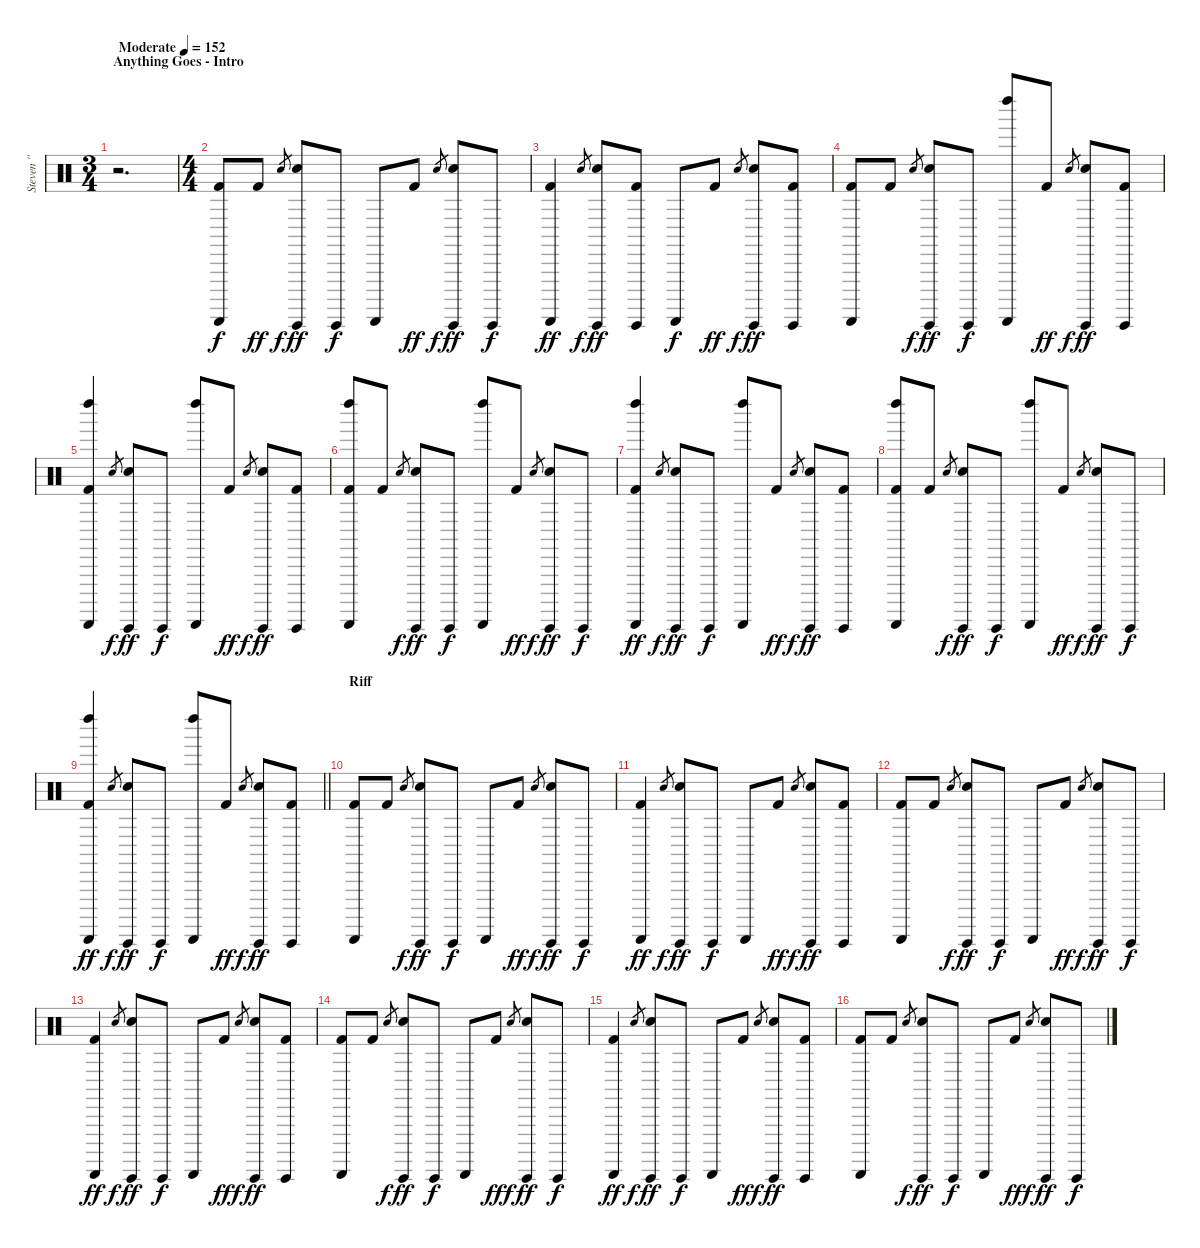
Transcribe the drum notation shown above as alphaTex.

\track ("Steven '' Popcorn '' Adler" "Steven '' ") {instrument percussion}
\staff {score}
\articulation defaults
\ts (3 4)
\section ("" "Anything Goes - Intro")
\tempo (152 "Moderate")
\clef neutral
\ks c
r.2{d dy f} |
\ts (4 4)
("Guiro (scrap-return)" "Kick (hit) 2").8 "Kick (hit) 2".8{dy ff} "Snare (hit) 2".8{gr dy f} ("Guiro (hit)" "Snare (hit) 2").8{dy ff} "Guiro (hit)".8{dy f} "Guiro (scrap-return)".8 "Kick (hit) 2".8{dy ff} "Snare (hit) 2".8{gr dy f} ("Guiro (hit)" "Snare (hit) 2").8{dy ff} "Guiro (hit)".8{dy f} |
("Guiro (scrap-return)" "Kick (hit) 2").4{dy ff} "Snare (hit) 2".8{gr dy f} ("Guiro (hit)" "Snare (hit) 2").8{dy ff} ("Guiro (hit)" "Kick (hit) 2").8 "Guiro (scrap-return)".8{dy f} "Kick (hit) 2".8{dy ff} "Snare (hit) 2".8{gr dy f} ("Guiro (hit)" "Snare (hit) 2").8{dy ff} ("Guiro (hit)" "Kick (hit) 2").8 |
("Guiro (scrap-return)" "Kick (hit) 2").8 "Kick (hit) 2".8 "Snare (hit) 2".8{gr dy f} ("Guiro (hit)" "Snare (hit) 2").8{dy ff} "Guiro (hit)".8{dy f} ("Left Maraca (hit)" "Guiro (scrap-return)").8 "Kick (hit) 2".8{dy ff} "Snare (hit) 2".8{gr dy f} ("Guiro (hit)" "Snare (hit) 2").8{dy ff} ("Guiro (hit)" "Kick (hit) 2").8 |
("Left Maraca (hit)" "Guiro (scrap-return)" "Kick (hit) 2").4 "Snare (hit) 2".8{gr dy f} ("Guiro (hit)" "Snare (hit) 2").8{dy ff} "Guiro (hit)".8{dy f} ("Left Maraca (hit)" "Guiro (scrap-return)").8 "Kick (hit) 2".8{dy ff} "Snare (hit) 2".8{gr dy f} ("Guiro (hit)" "Snare (hit) 2").8{dy ff} ("Guiro (hit)" "Kick (hit) 2").8 |
("Left Maraca (hit)" "Guiro (scrap-return)" "Kick (hit) 2").8 "Kick (hit) 2".8 "Snare (hit) 2".8{gr dy f} ("Guiro (hit)" "Snare (hit) 2").8{dy ff} "Guiro (hit)".8{dy f} ("Left Maraca (hit)" "Guiro (scrap-return)").8 "Kick (hit) 2".8{dy ff} "Snare (hit) 2".8{gr dy f} ("Guiro (hit)" "Snare (hit) 2").8{dy ff} "Guiro (hit)".8{dy f} |
("Left Maraca (hit)" "Guiro (scrap-return)" "Kick (hit) 2").4{dy ff} "Snare (hit) 2".8{gr dy f} ("Guiro (hit)" "Snare (hit) 2").8{dy ff} "Guiro (hit)".8{dy f} ("Left Maraca (hit)" "Guiro (scrap-return)").8 "Kick (hit) 2".8{dy ff} "Snare (hit) 2".8{gr dy f} ("Guiro (hit)" "Snare (hit) 2").8{dy ff} ("Guiro (hit)" "Kick (hit) 2").8 |
("Left Maraca (hit)" "Guiro (scrap-return)" "Kick (hit) 2").8 "Kick (hit) 2".8 "Snare (hit) 2".8{gr dy f} ("Guiro (hit)" "Snare (hit) 2").8{dy ff} "Guiro (hit)".8{dy f} ("Left Maraca (hit)" "Guiro (scrap-return)").8 "Kick (hit) 2".8{dy ff} "Snare (hit) 2".8{gr dy f} ("Guiro (hit)" "Snare (hit) 2").8{dy ff} "Guiro (hit)".8{dy f} |
\barLineRight lightlight
("Left Maraca (hit)" "Guiro (scrap-return)" "Kick (hit) 2").4{dy ff} "Snare (hit) 2".8{gr dy f} ("Guiro (hit)" "Snare (hit) 2").8{dy ff} "Guiro (hit)".8{dy f} ("Left Maraca (hit)" "Guiro (scrap-return)").8 "Kick (hit) 2".8{dy ff} "Snare (hit) 2".8{gr dy f} ("Guiro (hit)" "Snare (hit) 2").8{dy ff} ("Guiro (hit)" "Kick (hit) 2").8 |
\section ("" "Riff")
("Guiro (scrap-return)" "Kick (hit) 2").8 "Kick (hit) 2".8 "Snare (hit) 2".8{gr dy f} ("Guiro (hit)" "Snare (hit) 2").8{dy ff} "Guiro (hit)".8{dy f} "Guiro (scrap-return)".8 "Kick (hit) 2".8{dy ff} "Snare (hit) 2".8{gr dy f} ("Guiro (hit)" "Snare (hit) 2").8{dy ff} "Guiro (hit)".8{dy f} |
("Guiro (scrap-return)" "Kick (hit) 2").4{dy ff} "Snare (hit) 2".8{gr dy f} ("Guiro (hit)" "Snare (hit) 2").8{dy ff} "Guiro (hit)".8{dy f} "Guiro (scrap-return)".8 "Kick (hit) 2".8{dy ff} "Snare (hit) 2".8{gr dy f} ("Guiro (hit)" "Snare (hit) 2").8{dy ff} ("Guiro (hit)" "Kick (hit) 2").8 |
("Guiro (scrap-return)" "Kick (hit) 2").8 "Kick (hit) 2".8 "Snare (hit) 2".8{gr dy f} ("Guiro (hit)" "Snare (hit) 2").8{dy ff} "Guiro (hit)".8{dy f} "Guiro (scrap-return)".8 "Kick (hit) 2".8{dy ff} "Snare (hit) 2".8{gr dy f} ("Guiro (hit)" "Snare (hit) 2").8{dy ff} "Guiro (hit)".8{dy f} |
("Guiro (scrap-return)" "Kick (hit) 2").4{dy ff} "Snare (hit) 2".8{gr dy f} ("Guiro (hit)" "Snare (hit) 2").8{dy ff} "Guiro (hit)".8{dy f} "Guiro (scrap-return)".8 "Kick (hit) 2".8{dy ff} "Snare (hit) 2".8{gr dy f} ("Guiro (hit)" "Snare (hit) 2").8{dy ff} ("Guiro (hit)" "Kick (hit) 2").8 |
("Guiro (scrap-return)" "Kick (hit) 2").8 "Kick (hit) 2".8 "Snare (hit) 2".8{gr dy f} ("Guiro (hit)" "Snare (hit) 2").8{dy ff} "Guiro (hit)".8{dy f} "Guiro (scrap-return)".8 "Kick (hit) 2".8{dy ff} "Snare (hit) 2".8{gr dy f} ("Guiro (hit)" "Snare (hit) 2").8{dy ff} "Guiro (hit)".8{dy f} |
("Guiro (scrap-return)" "Kick (hit) 2").4{dy ff} "Snare (hit) 2".8{gr dy f} ("Guiro (hit)" "Snare (hit) 2").8{dy ff} "Guiro (hit)".8{dy f} "Guiro (scrap-return)".8 "Kick (hit) 2".8{dy ff} "Snare (hit) 2".8{gr dy f} ("Guiro (hit)" "Snare (hit) 2").8{dy ff} ("Guiro (hit)" "Kick (hit) 2").8 |
("Guiro (scrap-return)" "Kick (hit) 2").8 "Kick (hit) 2".8 "Snare (hit) 2".8{gr dy f} ("Guiro (hit)" "Snare (hit) 2").8{dy ff} "Guiro (hit)".8{dy f} "Guiro (scrap-return)".8 "Kick (hit) 2".8{dy ff} "Snare (hit) 2".8{gr dy f} ("Guiro (hit)" "Snare (hit) 2").8{dy ff} "Guiro (hit)".8{dy f}
